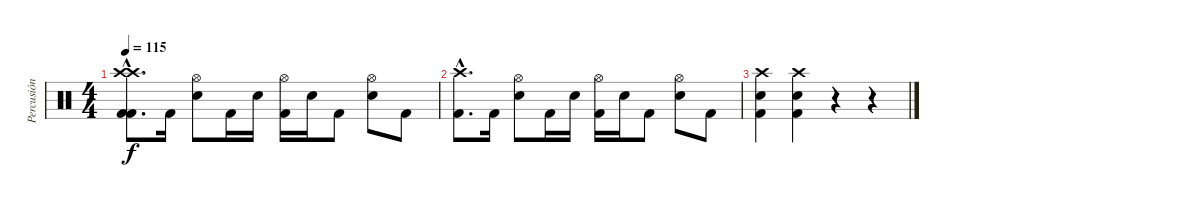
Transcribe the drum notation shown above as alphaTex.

\track ("Percusión" "Percusión") {instrument percussion}
\staff {score}
\articulation defaults
\ts (4 4)
\tempo 115
\clef neutral
\ks c
("Crash high (hit)"{hac} "Crash high (hit)"{hac} "Kick (hit) 2"{hac} "Kick (hit) 2"{hac}).8{d dy f} "Kick (hit) 2".16 ("Hi-Hat (open)" "Electric Snare (hit)").8 "Kick (hit) 2".16 "Electric Snare (hit)".16 ("Hi-Hat (open)" "Kick (hit) 2").16 "Electric Snare (hit)".16 "Kick (hit) 2".8 ("Hi-Hat (open)" "Electric Snare (hit)").8 "Kick (hit) 2".8 |
("Crash high (hit)"{hac} "Kick (hit) 2"{hac}).8{d} "Kick (hit) 2".16 ("Hi-Hat (open)" "Electric Snare (hit)").8 "Kick (hit) 2".16 "Electric Snare (hit)".16 ("Hi-Hat (open)" "Kick (hit) 2").16 "Electric Snare (hit)".16 "Kick (hit) 2".8 ("Hi-Hat (open)" "Electric Snare (hit)").8 "Kick (hit) 2".8 |
("Crash high (hit)" "Electric Snare (hit)" "Kick (hit) 2").4 ("Crash high (hit)" "Electric Snare (hit)" "Kick (hit) 2").4 r.4 r.4
